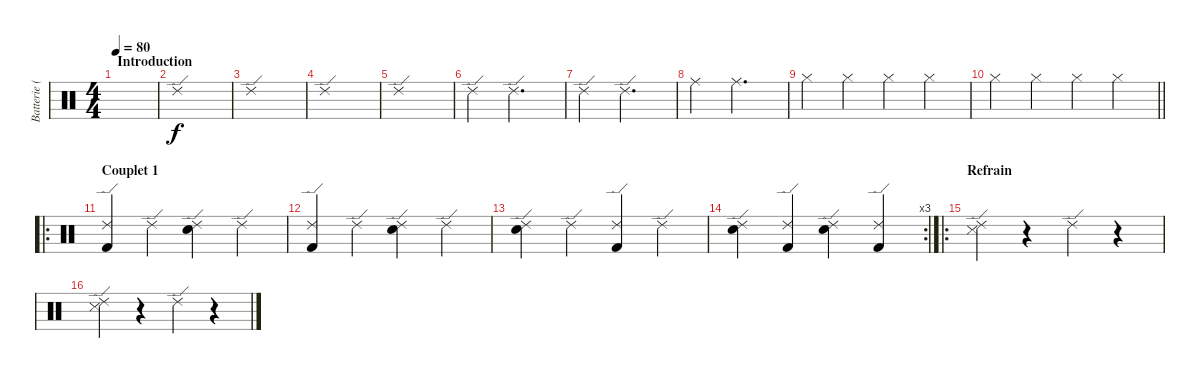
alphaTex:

\track ("Batterie (Batmo)" "Batterie (") {instrument percussion}
\staff {score}
\articulation defaults
\ts (4 4)
\section ("" "Introduction")
\tempo 80
\clef neutral
\ks c
|
"Ride (edge) 2".1 |
"Ride (edge) 2".1 |
"Ride (edge) 2".1 |
"Ride (edge) 2".1 |
"Ride (edge) 2".4 "Ride (edge) 2".2{d} |
"Ride (edge) 2".4 "Ride (edge) 2".2{d} |
"Ride (middle)".4 "Ride (middle)".2{d} |
"Hi-Hat (closed)".4 "Hi-Hat (closed)".4 "Hi-Hat (closed)".4 "Hi-Hat (closed)".4 |
\barLineRight lightlight "Hi-Hat (closed)".4 "Hi-Hat (closed)".4 "Hi-Hat (closed)".4 "Hi-Hat (closed)".4
|
\ro
\section ("" "Couplet 1")
("Ride (edge) 2" "Kick (hit) 2").4 "Ride (edge) 2".4 ("Ride (edge) 2" "Snare (hit) 2").4 "Ride (edge) 2".4 |
("Ride (edge) 2" "Kick (hit) 2").4 "Ride (edge) 2".4 ("Ride (edge) 2" "Snare (hit) 2").4 "Ride (edge) 2".4 |
("Ride (edge) 2" "Snare (hit) 2").4 "Ride (edge) 2".4 ("Ride (edge) 2" "Kick (hit) 2").4 "Ride (edge) 2".4 |
\rc 3
("Ride (edge) 2" "Snare (hit) 2").4 ("Ride (edge) 2" "Kick (hit) 2").4 ("Ride (edge) 2" "Snare (hit) 2").4 ("Ride (edge) 2" "Kick (hit) 2").4 |
\ro
\section ("" "Refrain")
("Ride (edge) 2" "Snare (side stick) 3").4 r.4 "Ride (edge) 2".4 r.4 |
("Ride (edge) 2" "Snare (side stick) 3").4 r.4 "Ride (edge) 2".4 r.4
